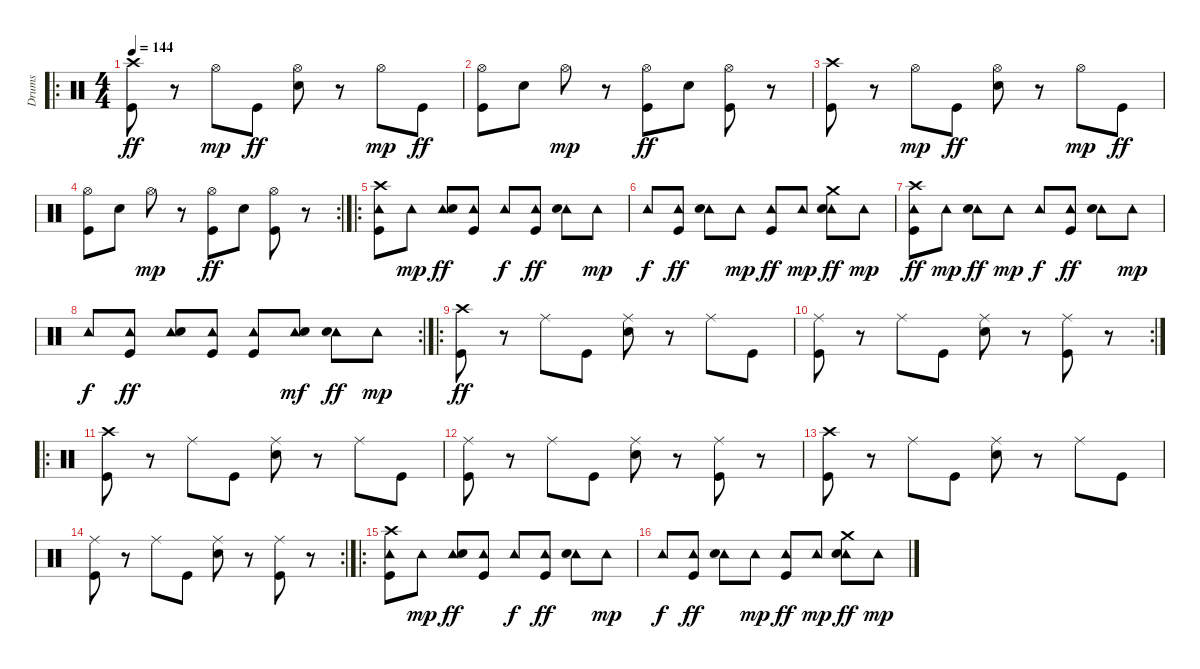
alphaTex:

\track ("Drums" "Drums") {instrument percussion}
\staff {score}
\articulation defaults
\ro
\ts (4 4)
\tempo 144
\clef neutral
\ks c
("Crash high (hit)" "Kick (hit)").8{dy ff} r.8 "Hi-Hat (open)".8{dy mp} "Kick (hit)".8{dy ff} ("Hi-Hat (open)" "Snare (hit) 2").8 r.8 "Hi-Hat (open)".8{dy mp} "Kick (hit)".8{dy ff} |
("Hi-Hat (open)" "Kick (hit)").8 "Snare (hit) 2".8 "Hi-Hat (open)".8{dy mp} r.8 ("Hi-Hat (open)" "Kick (hit)").8{dy ff} "Snare (hit) 2".8 ("Hi-Hat (open)" "Kick (hit)").8 r.8 |
("Crash high (hit)" "Kick (hit)").8 r.8 "Hi-Hat (open)".8{dy mp} "Kick (hit)".8{dy ff} ("Hi-Hat (open)" "Snare (hit) 2").8 r.8 "Hi-Hat (open)".8{dy mp} "Kick (hit)".8{dy ff} |
\rc 2
("Hi-Hat (open)" "Kick (hit)").8 "Snare (hit) 2".8 "Hi-Hat (open)".8{dy mp} r.8 ("Hi-Hat (open)" "Kick (hit)").8{dy ff} "Snare (hit) 2".8 ("Hi-Hat (open)" "Kick (hit)").8 r.8 |
\ro
("Crash high (hit)" "Tambourine (hit)" "Kick (hit)").8 "Tambourine (hit)".8{dy mp} ("Tambourine (hit)" "Snare (hit) 2").8{dy ff} ("Tambourine (hit)" "Kick (hit)").8 "Tambourine (hit)".8{dy f} ("Tambourine (hit)" "Kick (hit)").8{dy ff} ("Tambourine (hit)" "Snare (hit) 2").8 "Tambourine (hit)".8{dy mp} |
"Tambourine (hit)".8{dy f} ("Tambourine (hit)" "Kick (hit)").8{dy ff} ("Tambourine (hit)" "Snare (hit) 2").8 "Tambourine (hit)".8{dy mp} ("Tambourine (hit)" "Kick (hit)").8{dy ff} "Tambourine (hit)".8{dy mp} ("Crash medium (hit)" "Tambourine (hit)" "Snare (hit) 2").8{dy ff} "Tambourine (hit)".8{dy mp} |
("Crash high (hit)" "Tambourine (hit)" "Kick (hit)").8{dy ff} "Tambourine (hit)".8{dy mp} ("Tambourine (hit)" "Snare (hit) 2").8{dy ff} "Tambourine (hit)".8{dy mp} "Tambourine (hit)".8{dy f} ("Tambourine (hit)" "Kick (hit)").8{dy ff} ("Tambourine (hit)" "Snare (hit) 2").8 "Tambourine (hit)".8{dy mp} |
\rc 2 "Tambourine (hit)".8{dy f}
("Tambourine (hit)" "Kick (hit)").8{dy ff} ("Tambourine (hit)" "Snare (hit) 2").8 ("Tambourine (hit)" "Kick (hit)").8 ("Tambourine (hit)" "Kick (hit)").8 ("Tambourine (hit)" "Snare (hit) 2").8{dy mf} ("Tambourine (hit)" "Snare (hit) 2").8{dy ff} "Tambourine (hit)".8{dy mp} |
\ro
("Crash high (hit)" "Kick (hit)").8{dy ff} r.8 "Ride (middle)".8 "Kick (hit)".8 ("Ride (middle)" "Snare (hit) 2").8 r.8 "Ride (middle)".8 "Kick (hit)".8 |
\rc 2
("Ride (middle)" "Kick (hit)").8 r.8 "Ride (middle)".8 "Kick (hit)".8 ("Ride (middle)" "Snare (hit) 2").8 r.8 ("Ride (middle)" "Kick (hit)").8 r.8 |
\ro
("Crash high (hit)" "Kick (hit)").8 r.8 "Ride (middle)".8 "Kick (hit)".8 ("Ride (middle)" "Snare (hit) 2").8 r.8 "Ride (middle)".8 "Kick (hit)".8 |
("Ride (middle)" "Kick (hit)").8 r.8 "Ride (middle)".8 "Kick (hit)".8 ("Ride (middle)" "Snare (hit) 2").8 r.8 ("Ride (middle)" "Kick (hit)").8 r.8 |
("Crash high (hit)" "Kick (hit)").8 r.8 "Ride (middle)".8 "Kick (hit)".8 ("Ride (middle)" "Snare (hit) 2").8 r.8 "Ride (middle)".8 "Kick (hit)".8 |
\rc 2
("Ride (middle)" "Kick (hit)").8 r.8 "Ride (middle)".8 "Kick (hit)".8 ("Ride (middle)" "Snare (hit) 2").8 r.8 ("Ride (middle)" "Kick (hit)").8 r.8 |
\ro
("Crash high (hit)" "Tambourine (hit)" "Kick (hit)").8 "Tambourine (hit)".8{dy mp} ("Tambourine (hit)" "Snare (hit) 2").8{dy ff} ("Tambourine (hit)" "Kick (hit)").8 "Tambourine (hit)".8{dy f} ("Tambourine (hit)" "Kick (hit)").8{dy ff} ("Tambourine (hit)" "Snare (hit) 2").8 "Tambourine (hit)".8{dy mp} |
"Tambourine (hit)".8{dy f} ("Tambourine (hit)" "Kick (hit)").8{dy ff} ("Tambourine (hit)" "Snare (hit) 2").8 "Tambourine (hit)".8{dy mp} ("Tambourine (hit)" "Kick (hit)").8{dy ff} "Tambourine (hit)".8{dy mp} ("Crash medium (hit)" "Tambourine (hit)" "Snare (hit) 2").8{dy ff} "Tambourine (hit)".8{dy mp}
